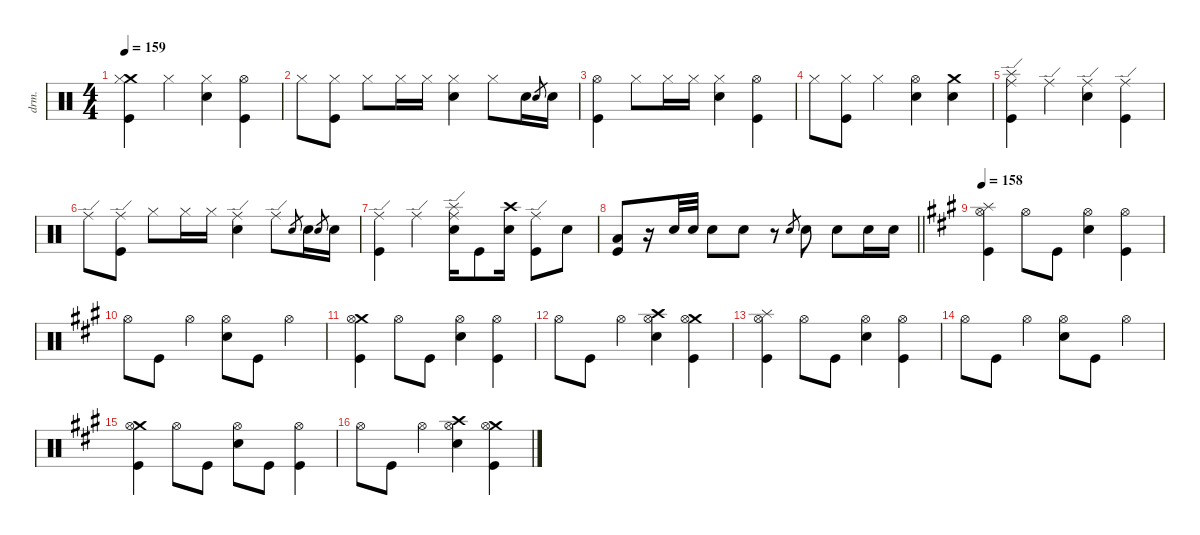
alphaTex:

\defaultSystemsLayout 4
\hideDynamics
\bracketExtendMode groupsimilarinstruments
\otherSystemsTrackNameOrientation horizontal
\track ("Drums" "drm.") {defaultSystemsLayout 4 instrument percussion}
\staff {score}
\articulation defaults
\ts (4 4)
\tempo 159
\clef neutral
\ks aminor
("Crash medium (hit)" "Hi-Hat (closed)" "Kick (hit)").4{dy f beam Down} "Hi-Hat (closed)".4{beam Down} ("Hi-Hat (closed)" "Snare (hit) 2").4{beam Down} ("Hi-Hat (open)" "Kick (hit)").4{beam Down} |
"Hi-Hat (closed)".8{beam Down} ("Hi-Hat (closed)" "Kick (hit)").8{beam Down} "Hi-Hat (closed)".8{beam Down} "Hi-Hat (closed)".16{dy mp beam Down} "Hi-Hat (closed)".16{beam Down} ("Hi-Hat (closed)" "Snare (hit) 2").4{dy f beam Down} "Hi-Hat (closed)".8{beam Down} "Snare (hit) 2".16{dy p beam Down} "Electric Snare (hit)".8{gr beam Up} "Snare (hit) 2".16{beam Down} |
("Hi-Hat (open)" "Kick (hit)").4{dy f beam Down} "Hi-Hat (closed)".8{beam Down} "Hi-Hat (closed)".16{dy mp beam Down} "Hi-Hat (closed)".16{beam Down} ("Hi-Hat (closed)" "Snare (hit) 2").4{dy f beam Down} ("Hi-Hat (open)" "Kick (hit)").4{beam Down} |
"Hi-Hat (closed)".8{beam Down} ("Hi-Hat (closed)" "Kick (hit)").8{beam Down} "Hi-Hat (closed)".4{beam Down} ("Hi-Hat (open)" "Snare (hit) 2").4{beam Down} ("Crash medium (hit)" "Snare (hit) 2").4{dy mp beam Down} |
("Splash (hit)" "Kick (hit)" "Ride (edge)").4{dy mf beam Down} "Ride (edge)".4{beam Down} ("Ride (edge)" "Snare (hit) 2").4{dy f beam Down} ("Ride (edge)" "Kick (hit)").4{beam Down} |
"Ride (edge)".8{beam Down} ("Ride (edge)" "Kick (hit)").8{beam Down} "Hi-Hat (closed)".8{dy mp beam Down} "Hi-Hat (closed)".16{beam Down} "Hi-Hat (closed)".16{beam Down} ("Ride (edge)" "Snare (hit) 2").4{dy f beam Down} "Ride (edge)".8{beam Down} "Electric Snare (hit)".8{gr dy pp beam Up} "Snare (hit) 2".16{dy p beam Down} "Electric Snare (hit)".8{gr beam Up} "Snare (hit) 2".16{beam Down} |
("Ride (edge)" "Kick (hit)").4{dy f beam Down} "Ride (edge)".4{beam Down} ("Splash (hit)" "Ride (edge)" "Snare (hit) 2").16{dy mf beam Down} "Kick (hit)".8{dy f beam Down} ("Crash high (hit)" "Snare (hit) 2").16{beam Down} ("Ride (edge)" "Kick (hit)").8{beam Down} "Snare (hit) 2".8{beam Down} |
\barLineRight lightlight
("Low Tom (hit)" "Kick (hit)").8{beam Up} r.16{beam Up} "Snare (hit) 2".32{dy mf beam Up} "Snare (hit) 2".32{beam Up} "Snare (hit) 2".8{dy f beam Down} "Snare (hit) 2".8{beam Down} r.8{beam Down} "Electric Snare (hit)".8{gr dy p beam Up} "Snare (hit) 2".8{dy f beam Down} "Snare (hit) 2".8{beam Down} "Snare (hit) 2".16{beam Down} "Snare (hit) 2".16{beam Down} |
\tempo 158
\ks f#minor
("Splash (hit)"{acc forcenatural} "Hi-Hat (open)"{acc forcenatural} "Kick (hit)"{acc forcenatural}).4{beam Down} "Hi-Hat (open)"{acc forcenatural}.8{beam Down} "Kick (hit)"{acc forcenatural}.8{dy mp beam Down} ("Hi-Hat (open)"{acc forcenatural} "Snare (hit) 2"{acc forcenatural}).4{dy f beam Down} ("Hi-Hat (open)"{acc forcenatural} "Kick (hit)"{acc forcenatural}).4{beam Down} |
"Hi-Hat (open)"{acc forcenatural}.8{beam Down} "Kick (hit)"{acc forcenatural}.8{beam Down} "Hi-Hat (open)"{acc forcenatural}.4{beam Down} ("Hi-Hat (open)"{acc forcenatural} "Snare (hit) 2"{acc forcenatural}).8{beam Down} "Kick (hit)"{acc forcenatural}.8{beam Down} "Hi-Hat (open)"{acc forcenatural}.4{beam Down} |
("Crash medium (hit)"{acc forcenatural} "Hi-Hat (open)"{acc forcenatural} "Kick (hit)"{acc forcenatural}).4{beam Down} "Hi-Hat (open)"{acc forcenatural}.8{beam Down} "Kick (hit)"{acc forcenatural}.8{dy mp beam Down} ("Hi-Hat (open)"{acc forcenatural} "Snare (hit) 2"{acc forcenatural}).4{dy f beam Down} ("Hi-Hat (open)"{acc forcenatural} "Kick (hit)"{acc forcenatural}).4{beam Down} |
"Hi-Hat (open)"{acc forcenatural}.8{beam Down} "Kick (hit)"{acc forcenatural}.8{beam Down} "Hi-Hat (open)"{acc forcenatural}.4{beam Down} ("Crash high (hit)"{acc forcenatural} "Hi-Hat (open)"{acc forcenatural} "Snare (hit) 2"{acc forcenatural}).4{dy mf beam Down} ("Crash medium (hit)"{acc forcenatural} "Hi-Hat (open)"{acc forcenatural} "Kick (hit)"{acc forcenatural}).4{dy f beam Down} |
("Splash (hit)"{acc forcenatural} "Hi-Hat (open)"{acc forcenatural} "Kick (hit)"{acc forcenatural}).4{beam Down} "Hi-Hat (open)"{acc forcenatural}.8{beam Down} "Kick (hit)"{acc forcenatural}.8{dy mp beam Down} ("Hi-Hat (open)"{acc forcenatural} "Snare (hit) 2"{acc forcenatural}).4{dy f beam Down} ("Hi-Hat (open)"{acc forcenatural} "Kick (hit)"{acc forcenatural}).4{beam Down} |
"Hi-Hat (open)"{acc forcenatural}.8{beam Down} "Kick (hit)"{acc forcenatural}.8{beam Down} "Hi-Hat (open)"{acc forcenatural}.4{beam Down} ("Hi-Hat (open)"{acc forcenatural} "Snare (hit) 2"{acc forcenatural}).8{beam Down} "Kick (hit)"{acc forcenatural}.8{beam Down} "Hi-Hat (open)"{acc forcenatural}.4{beam Down} |
("Crash medium (hit)"{acc forcenatural} "Hi-Hat (open)"{acc forcenatural} "Kick (hit)"{acc forcenatural}).4{beam Down} "Hi-Hat (open)"{acc forcenatural}.8{beam Down} "Kick (hit)"{acc forcenatural}.8{dy mp beam Down} ("Hi-Hat (open)"{acc forcenatural} "Snare (hit) 2"{acc forcenatural}).8{dy f beam Down} "Kick (hit)"{acc forcenatural}.8{dy mf beam Down} ("Hi-Hat (open)"{acc forcenatural} "Kick (hit)"{acc forcenatural}).4{dy f beam Down} |
"Hi-Hat (open)"{acc forcenatural}.8{beam Down} "Kick (hit)"{acc forcenatural}.8{beam Down} "Hi-Hat (open)"{acc forcenatural}.4{beam Down} ("Crash high (hit)"{acc forcenatural} "Hi-Hat (open)"{acc forcenatural} "Snare (hit) 2"{acc forcenatural}).4{dy mf beam Down} ("Crash medium (hit)"{acc forcenatural} "Hi-Hat (open)"{acc forcenatural} "Kick (hit)"{acc forcenatural}).4{dy f beam Down}
